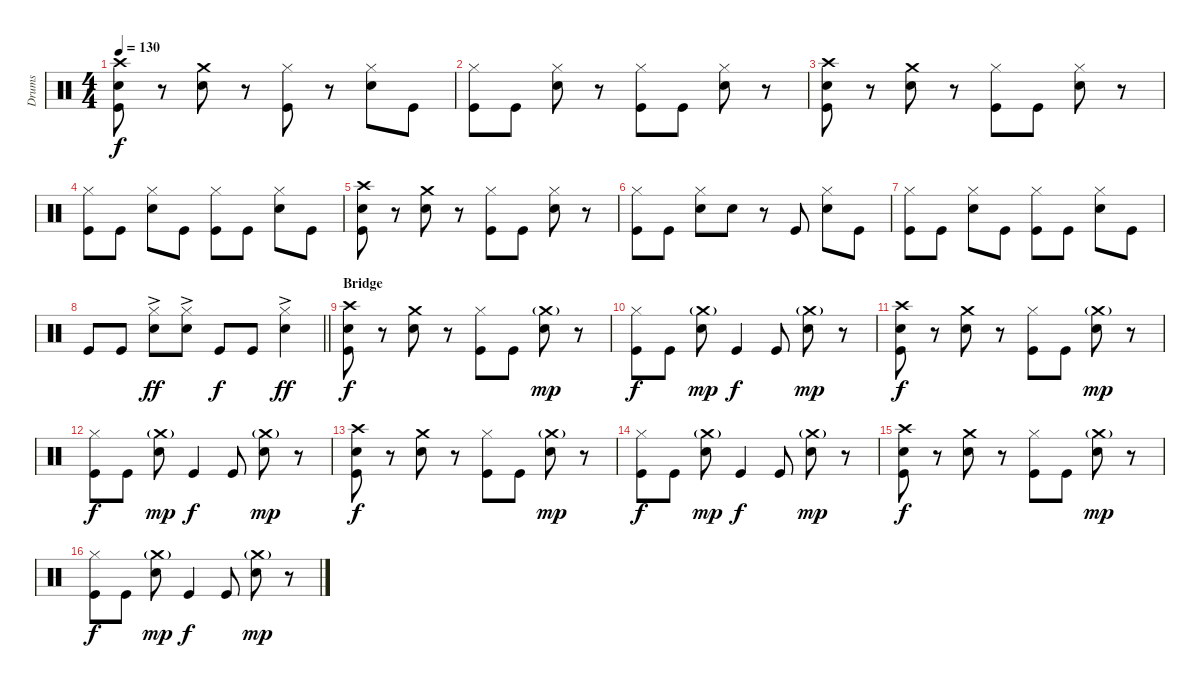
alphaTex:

\track ("Drums" "Drums") {instrument percussion}
\staff {score}
\articulation defaults
\ts (4 4)
\tempo 130
\clef neutral
\ks c
("Crash high (hit)" "Electric Snare (hit)" "Kick (hit)").8{dy f} r.8 ("Crash medium (hit)" "Electric Snare (hit)").8 r.8 ("Hi-Hat (closed)" "Kick (hit)").8 r.8 ("Hi-Hat (closed)" "Electric Snare (hit)").8 "Kick (hit)".8 |
("Hi-Hat (closed)" "Kick (hit)").8 "Kick (hit)".8 ("Hi-Hat (closed)" "Electric Snare (hit)").8 r.8 ("Hi-Hat (closed)" "Kick (hit)").8 "Kick (hit)".8 ("Hi-Hat (closed)" "Electric Snare (hit)").8 r.8 |
("Crash high (hit)" "Electric Snare (hit)" "Kick (hit)").8 r.8 ("Crash medium (hit)" "Electric Snare (hit)").8 r.8 ("Hi-Hat (closed)" "Kick (hit)").8 "Kick (hit)".8 ("Hi-Hat (closed)" "Electric Snare (hit)").8 r.8 |
("Hi-Hat (closed)" "Kick (hit)").8 "Kick (hit)".8 ("Hi-Hat (closed)" "Electric Snare (hit)").8 "Kick (hit)".8 ("Hi-Hat (closed)" "Kick (hit)").8 "Kick (hit)".8 ("Hi-Hat (closed)" "Electric Snare (hit)").8 "Kick (hit)".8 |
("Crash high (hit)" "Kick (hit)" "Electric Snare (hit)").8 r.8 ("Crash medium (hit)" "Electric Snare (hit)").8 r.8 ("Hi-Hat (closed)" "Kick (hit)").8 "Kick (hit)".8 ("Hi-Hat (closed)" "Electric Snare (hit)").8 r.8 |
("Hi-Hat (closed)" "Kick (hit)").8 "Kick (hit)".8 ("Hi-Hat (closed)" "Electric Snare (hit)").8 "Electric Snare (hit)".8 r.8 "Kick (hit)".8 ("Hi-Hat (closed)" "Electric Snare (hit)").8 "Kick (hit)".8 |
("Hi-Hat (closed)" "Kick (hit)").8 "Kick (hit)".8 ("Hi-Hat (closed)" "Electric Snare (hit)").8 "Kick (hit)".8 ("Hi-Hat (closed)" "Kick (hit)").8 "Kick (hit)".8 ("Hi-Hat (closed)" "Electric Snare (hit)").8 "Kick (hit)".8 |
\barLineRight lightlight "Kick (hit)".8 "Kick (hit)".8
("Hi-Hat (closed)"{ac} "Electric Snare (hit)"{ac}).8{dy ff} ("Hi-Hat (closed)"{ac} "Electric Snare (hit)"{ac}).8 "Kick (hit)".8{dy f} "Kick (hit)".8 ("Hi-Hat (closed)"{ac} "Electric Snare (hit)"{ac}).4{dy ff} |
\section ("" "Bridge")
("Electric Snare (hit)" "Kick (hit)" "Crash high (hit)").8{dy f} r.8 ("Crash medium (hit)" "Electric Snare (hit)").8 r.8 ("Hi-Hat (closed)" "Kick (hit)").8 "Kick (hit)".8 ("Crash medium (hit)"{g} "Electric Snare (hit)").8{dy mp} r.8 |
("Hi-Hat (closed)" "Kick (hit)").8{dy f} "Kick (hit)".8 ("Crash medium (hit)"{g} "Electric Snare (hit)").8{dy mp} "Kick (hit)".4{dy f} "Kick (hit)".8 ("Crash medium (hit)"{g} "Electric Snare (hit)").8{dy mp} r.8 |
("Electric Snare (hit)" "Kick (hit)" "Crash high (hit)").8{dy f} r.8 ("Crash medium (hit)" "Electric Snare (hit)").8 r.8 ("Hi-Hat (closed)" "Kick (hit)").8 "Kick (hit)".8 ("Crash medium (hit)"{g} "Electric Snare (hit)").8{dy mp} r.8 |
("Hi-Hat (closed)" "Kick (hit)").8{dy f} "Kick (hit)".8 ("Crash medium (hit)"{g} "Electric Snare (hit)").8{dy mp} "Kick (hit)".4{dy f} "Kick (hit)".8 ("Crash medium (hit)"{g} "Electric Snare (hit)").8{dy mp} r.8 |
("Electric Snare (hit)" "Kick (hit)" "Crash high (hit)").8{dy f} r.8 ("Crash medium (hit)" "Electric Snare (hit)").8 r.8 ("Hi-Hat (closed)" "Kick (hit)").8 "Kick (hit)".8 ("Crash medium (hit)"{g} "Electric Snare (hit)").8{dy mp} r.8 |
("Hi-Hat (closed)" "Kick (hit)").8{dy f} "Kick (hit)".8 ("Crash medium (hit)"{g} "Electric Snare (hit)").8{dy mp} "Kick (hit)".4{dy f} "Kick (hit)".8 ("Crash medium (hit)"{g} "Electric Snare (hit)").8{dy mp} r.8 |
("Electric Snare (hit)" "Kick (hit)" "Crash high (hit)").8{dy f} r.8 ("Crash medium (hit)" "Electric Snare (hit)").8 r.8 ("Hi-Hat (closed)" "Kick (hit)").8 "Kick (hit)".8 ("Crash medium (hit)"{g} "Electric Snare (hit)").8{dy mp} r.8 |
("Hi-Hat (closed)" "Kick (hit)").8{dy f} "Kick (hit)".8 ("Crash medium (hit)"{g} "Electric Snare (hit)").8{dy mp} "Kick (hit)".4{dy f} "Kick (hit)".8 ("Crash medium (hit)"{g} "Electric Snare (hit)").8{dy mp} r.8
